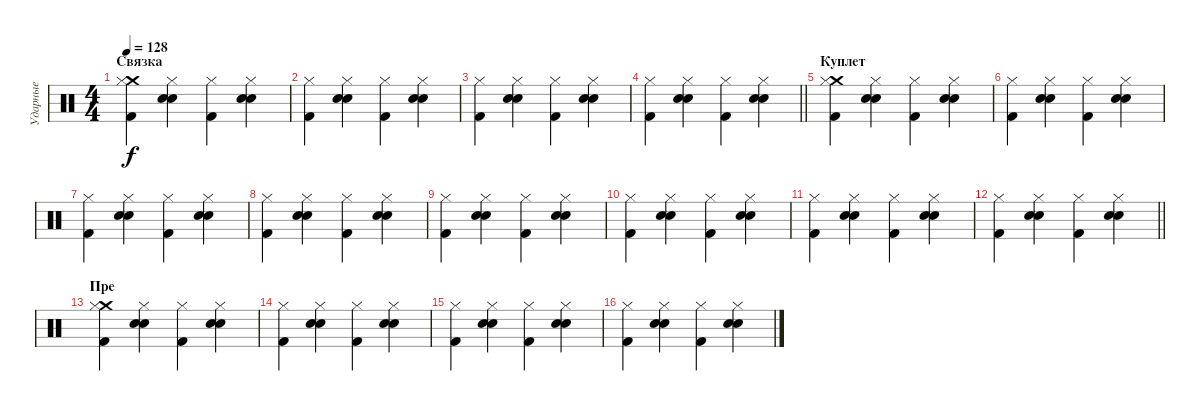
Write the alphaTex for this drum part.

\track ("Ударные" "Ударные") {instrument percussion}
\staff {score}
\articulation defaults
\ts (4 4)
\section ("" "Связка")
\tempo 128
\clef neutral
\ks c
("Crash medium (hit)" "Hi-Hat (closed)" "Kick (hit) 2").4{dy f} ("Electric Snare (hit)" "Snare (hit) 2" "Hi-Hat (closed)").4 ("Hi-Hat (closed)" "Kick (hit) 2").4 ("Electric Snare (hit)" "Snare (hit) 2" "Hi-Hat (closed)").4 |
("Hi-Hat (closed)" "Kick (hit) 2").4 ("Electric Snare (hit)" "Snare (hit) 2" "Hi-Hat (closed)").4 ("Hi-Hat (closed)" "Kick (hit) 2").4 ("Electric Snare (hit)" "Snare (hit) 2" "Hi-Hat (closed)").4 |
("Hi-Hat (closed)" "Kick (hit) 2").4 ("Electric Snare (hit)" "Snare (hit) 2" "Hi-Hat (closed)").4 ("Hi-Hat (closed)" "Kick (hit) 2").4 ("Electric Snare (hit)" "Snare (hit) 2" "Hi-Hat (closed)").4 |
\barLineRight lightlight
("Hi-Hat (closed)" "Kick (hit) 2").4 ("Electric Snare (hit)" "Snare (hit) 2" "Hi-Hat (closed)").4 ("Hi-Hat (closed)" "Kick (hit) 2").4 ("Electric Snare (hit)" "Snare (hit) 2" "Hi-Hat (closed)").4 |
\section ("" "Куплет")
("Crash medium (hit)" "Hi-Hat (closed)" "Kick (hit) 2").4 ("Electric Snare (hit)" "Snare (hit) 2" "Hi-Hat (closed)").4 ("Hi-Hat (closed)" "Kick (hit) 2").4 ("Electric Snare (hit)" "Snare (hit) 2" "Hi-Hat (closed)").4 |
("Hi-Hat (closed)" "Kick (hit) 2").4 ("Electric Snare (hit)" "Snare (hit) 2" "Hi-Hat (closed)").4 ("Hi-Hat (closed)" "Kick (hit) 2").4 ("Electric Snare (hit)" "Snare (hit) 2" "Hi-Hat (closed)").4 |
("Hi-Hat (closed)" "Kick (hit) 2").4 ("Electric Snare (hit)" "Snare (hit) 2" "Hi-Hat (closed)").4 ("Hi-Hat (closed)" "Kick (hit) 2").4 ("Electric Snare (hit)" "Snare (hit) 2" "Hi-Hat (closed)").4 |
("Hi-Hat (closed)" "Kick (hit) 2").4 ("Electric Snare (hit)" "Snare (hit) 2" "Hi-Hat (closed)").4 ("Hi-Hat (closed)" "Kick (hit) 2").4 ("Electric Snare (hit)" "Snare (hit) 2" "Hi-Hat (closed)").4 |
("Hi-Hat (closed)" "Kick (hit) 2").4 ("Electric Snare (hit)" "Snare (hit) 2" "Hi-Hat (closed)").4 ("Hi-Hat (closed)" "Kick (hit) 2").4 ("Electric Snare (hit)" "Snare (hit) 2" "Hi-Hat (closed)").4 |
("Hi-Hat (closed)" "Kick (hit) 2").4 ("Electric Snare (hit)" "Snare (hit) 2" "Hi-Hat (closed)").4 ("Hi-Hat (closed)" "Kick (hit) 2").4 ("Electric Snare (hit)" "Snare (hit) 2" "Hi-Hat (closed)").4 |
("Hi-Hat (closed)" "Kick (hit) 2").4 ("Electric Snare (hit)" "Snare (hit) 2" "Hi-Hat (closed)").4 ("Hi-Hat (closed)" "Kick (hit) 2").4 ("Electric Snare (hit)" "Snare (hit) 2" "Hi-Hat (closed)").4 |
\barLineRight lightlight
("Hi-Hat (closed)" "Kick (hit) 2").4 ("Electric Snare (hit)" "Snare (hit) 2" "Hi-Hat (closed)").4 ("Hi-Hat (closed)" "Kick (hit) 2").4 ("Electric Snare (hit)" "Snare (hit) 2" "Hi-Hat (closed)").4 |
\section ("" "Пре")
("Crash medium (hit)" "Hi-Hat (closed)" "Kick (hit) 2").4 ("Electric Snare (hit)" "Snare (hit) 2" "Hi-Hat (closed)").4 ("Hi-Hat (closed)" "Kick (hit) 2").4 ("Electric Snare (hit)" "Snare (hit) 2" "Hi-Hat (closed)").4 |
("Hi-Hat (closed)" "Kick (hit) 2").4 ("Electric Snare (hit)" "Snare (hit) 2" "Hi-Hat (closed)").4 ("Hi-Hat (closed)" "Kick (hit) 2").4 ("Electric Snare (hit)" "Snare (hit) 2" "Hi-Hat (closed)").4 |
("Hi-Hat (closed)" "Kick (hit) 2").4 ("Electric Snare (hit)" "Snare (hit) 2" "Hi-Hat (closed)").4 ("Hi-Hat (closed)" "Kick (hit) 2").4 ("Electric Snare (hit)" "Snare (hit) 2" "Hi-Hat (closed)").4 |
("Hi-Hat (closed)" "Kick (hit) 2").4 ("Electric Snare (hit)" "Snare (hit) 2" "Hi-Hat (closed)").4 ("Hi-Hat (closed)" "Kick (hit) 2").4 ("Electric Snare (hit)" "Snare (hit) 2" "Hi-Hat (closed)").4
